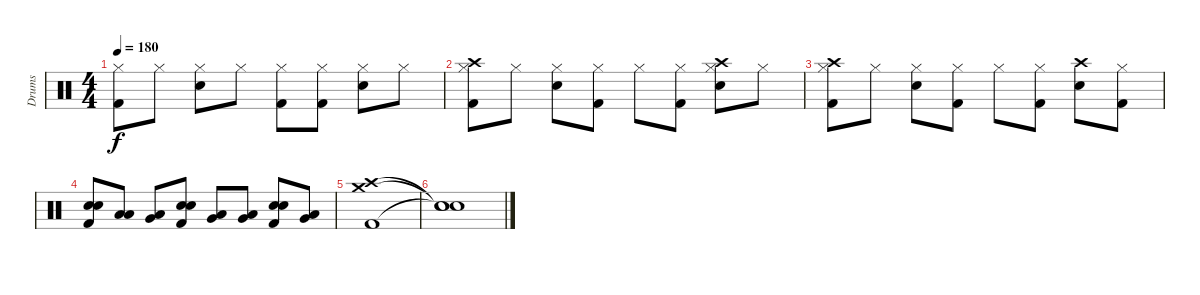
\track ("Drums" "Drums") {instrument percussion}
\staff {score}
\articulation defaults
\ts (4 4)
\tempo 180
\clef neutral
\ks c
("Hi-Hat (closed)" "Kick (hit) 2").8{dy f} "Hi-Hat (closed)".8 ("Hi-Hat (closed)" "Electric Snare (hit)").8 "Hi-Hat (closed)".8 ("Hi-Hat (closed)" "Kick (hit) 2").8 ("Hi-Hat (closed)" "Kick (hit) 2").8 ("Hi-Hat (closed)" "Electric Snare (hit)").8 "Hi-Hat (closed)".8 |
("Crash high (hit)" "Hi-Hat (closed)" "Kick (hit) 2").8 "Hi-Hat (closed)".8 ("Hi-Hat (closed)" "Electric Snare (hit)").8 ("Hi-Hat (closed)" "Kick (hit) 2").8 "Hi-Hat (closed)".8 ("Hi-Hat (closed)" "Kick (hit) 2").8 ("Crash high (hit)" "Hi-Hat (closed)" "Electric Snare (hit)").8 "Hi-Hat (closed)".8 |
("Crash high (hit)" "Hi-Hat (closed)" "Kick (hit) 2").8 "Hi-Hat (closed)".8 ("Hi-Hat (closed)" "Electric Snare (hit)").8 ("Hi-Hat (closed)" "Kick (hit) 2").8 "Hi-Hat (closed)".8 ("Hi-Hat (closed)" "Kick (hit) 2").8 ("Crash high (hit)" "Electric Snare (hit)").8 ("Hi-Hat (closed)" "Kick (hit) 2").8 |
("Electric Snare (hit)" "Electric Snare (hit)" "Kick (hit) 2").8 ("Low Tom (hit)" "Low Tom (hit)").8 ("Very Low Tom (hit)" "Low Floor Tom (hit)").8 ("Electric Snare (hit)" "Electric Snare (hit)" "Kick (hit) 2").8 ("Low Tom (hit)" "Very Low Tom (hit)").8 ("Very Low Tom (hit)" "Low Floor Tom (hit)").8 ("Electric Snare (hit)" "Electric Snare (hit)" "Kick (hit) 2").8 ("Low Tom (hit)" "Very Low Tom (hit)").8 |
("Crash medium (hit)" "Crash high (hit)" "Kick (hit) 2").1 |
("Snare (hit)"{t} "Snare (hit)"{t} "Snare (hit)"{t}).1
